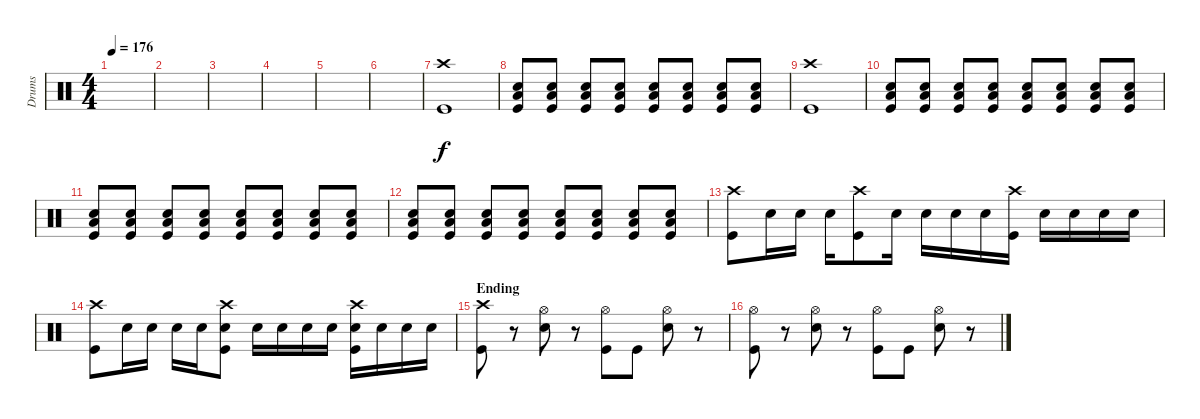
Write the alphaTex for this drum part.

\track ("Drums" "Drums") {instrument percussion}
\staff {score}
\articulation defaults
\ts (4 4)
\tempo 176
\clef neutral
\ks c
|
|
|
|
|
|
("Crash high (hit)" "Kick (hit)").1 |
("Snare (hit) 2" "Low Floor Tom (hit)" "Kick (hit)").8{volume 1} ("Snare (hit) 2" "Low Floor Tom (hit)" "Kick (hit)").8{volume 2} ("Snare (hit) 2" "Low Floor Tom (hit)" "Kick (hit)").8{volume 3} ("Snare (hit) 2" "Low Floor Tom (hit)" "Kick (hit)").8{volume 4} ("Snare (hit) 2" "Low Floor Tom (hit)" "Kick (hit)").8{volume 5} ("Snare (hit) 2" "Low Floor Tom (hit)" "Kick (hit)").8{volume 6} ("Snare (hit) 2" "Low Floor Tom (hit)" "Kick (hit)").8{volume 7} ("Snare (hit) 2" "Low Floor Tom (hit)" "Kick (hit)").8{volume 8} |
("Crash high (hit)" "Kick (hit)").1{volume 13} |
("Snare (hit) 2" "Low Floor Tom (hit)" "Kick (hit)").8{volume 1} ("Snare (hit) 2" "Low Floor Tom (hit)" "Kick (hit)").8{volume 2} ("Snare (hit) 2" "Low Floor Tom (hit)" "Kick (hit)").8{volume 3} ("Snare (hit) 2" "Low Floor Tom (hit)" "Kick (hit)").8{volume 4} ("Snare (hit) 2" "Low Floor Tom (hit)" "Kick (hit)").8{volume 5} ("Snare (hit) 2" "Low Floor Tom (hit)" "Kick (hit)").8{volume 6} ("Snare (hit) 2" "Low Floor Tom (hit)" "Kick (hit)").8{volume 7} ("Snare (hit) 2" "Low Floor Tom (hit)" "Kick (hit)").8{volume 8} |
("Snare (hit) 2" "Low Floor Tom (hit)" "Kick (hit)").8{volume 8} ("Snare (hit) 2" "Low Floor Tom (hit)" "Kick (hit)").8{volume 8} ("Snare (hit) 2" "Low Floor Tom (hit)" "Kick (hit)").8{volume 8} ("Snare (hit) 2" "Low Floor Tom (hit)" "Kick (hit)").8{volume 8} ("Snare (hit) 2" "Low Floor Tom (hit)" "Kick (hit)").8{volume 8} ("Snare (hit) 2" "Low Floor Tom (hit)" "Kick (hit)").8{volume 8} ("Snare (hit) 2" "Low Floor Tom (hit)" "Kick (hit)").8{volume 8} ("Snare (hit) 2" "Low Floor Tom (hit)" "Kick (hit)").8{volume 8} |
("Snare (hit) 2" "Low Floor Tom (hit)" "Kick (hit)").8{volume 9} ("Snare (hit) 2" "Low Floor Tom (hit)" "Kick (hit)").8{volume 10} ("Snare (hit) 2" "Low Floor Tom (hit)" "Kick (hit)").8 ("Snare (hit) 2" "Low Floor Tom (hit)" "Kick (hit)").8{volume 11} ("Snare (hit) 2" "Low Floor Tom (hit)" "Kick (hit)").8 ("Snare (hit) 2" "Low Floor Tom (hit)" "Kick (hit)").8{volume 12} ("Snare (hit) 2" "Low Floor Tom (hit)" "Kick (hit)").8 ("Snare (hit) 2" "Low Floor Tom (hit)" "Kick (hit)").8 |
("Crash high (hit)" "Kick (hit)").8 "Snare (hit) 2".16 "Snare (hit) 2".16 "Snare (hit) 2".16 ("Crash high (hit)" "Kick (hit)").8 "Snare (hit) 2".16 "Snare (hit) 2".16 "Snare (hit) 2".16 "Snare (hit) 2".16 ("Crash high (hit)" "Kick (hit)").16 "Snare (hit) 2".16 "Snare (hit) 2".16 "Snare (hit) 2".16 "Snare (hit) 2".16 |
("Crash high (hit)" "Kick (hit)").8 "Snare (hit) 2".16 "Snare (hit) 2".16 "Snare (hit) 2".16 "Snare (hit) 2".16 ("Crash high (hit)" "Snare (hit) 2" "Kick (hit)").8 "Snare (hit) 2".16 "Snare (hit) 2".16 "Snare (hit) 2".16 "Snare (hit) 2".16 ("Crash high (hit)" "Snare (hit) 2" "Kick (hit)").16 "Snare (hit) 2".16 "Snare (hit) 2".16 "Snare (hit) 2".16 |
\section ("" "Ending")
("Crash high (hit)" "Kick (hit)").8 r.8 ("Hi-Hat (open)" "Snare (hit) 2").8 r.8 ("Hi-Hat (open)" "Kick (hit)").8 "Kick (hit)".8 ("Hi-Hat (open)" "Snare (hit) 2").8 r.8 |
("Hi-Hat (open)" "Kick (hit)").8 r.8 ("Hi-Hat (open)" "Snare (hit) 2").8 r.8 ("Hi-Hat (open)" "Kick (hit)").8 "Kick (hit)".8 ("Hi-Hat (open)" "Snare (hit) 2").8 r.8
